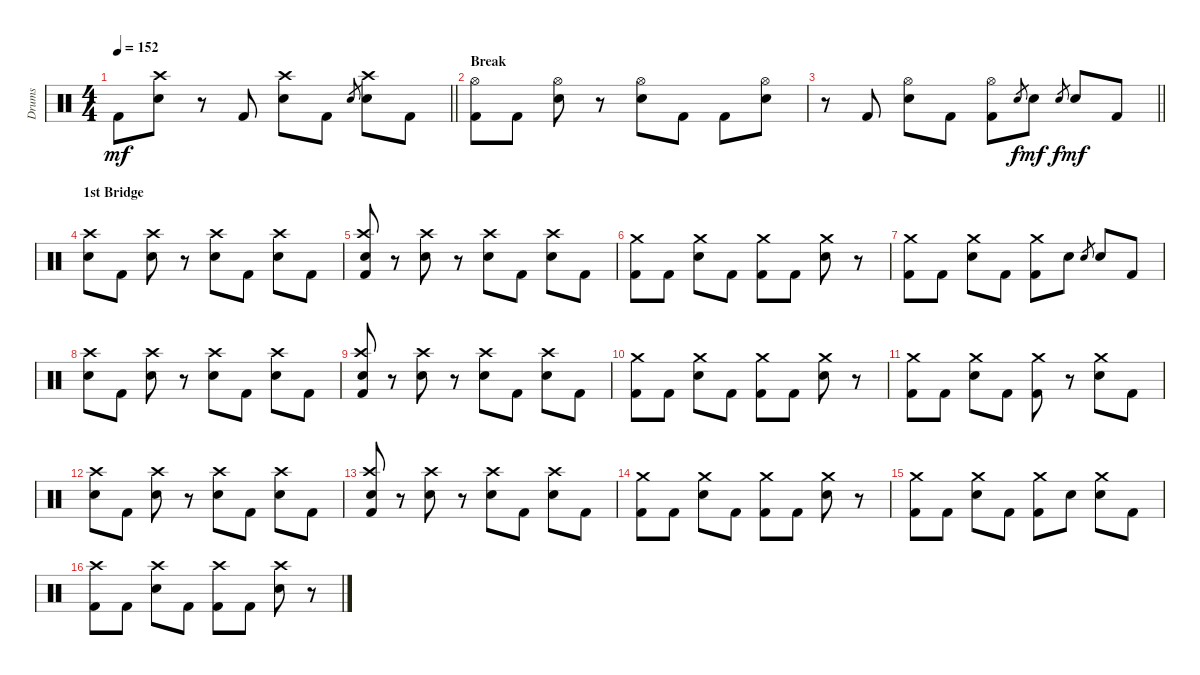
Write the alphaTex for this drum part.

\track ("Drums" "Drums") {instrument percussion}
\staff {score}
\articulation defaults
\ts (4 4)
\tempo 152
\clef neutral
\barLineRight lightlight
\ks c "Kick (hit) 2".8{dy mf}
("Crash high (hit)" "Snare (hit) 2").8 r.8 "Kick (hit) 2".8 ("Crash high (hit)" "Snare (hit) 2").8 "Kick (hit) 2".8 "Snare (hit) 2".8{gr} ("Crash high (hit)" "Snare (hit) 2").8 "Kick (hit) 2".8 |
\section ("" "Break")
("Hi-Hat (open)" "Kick (hit) 2").8 "Kick (hit) 2".8 ("Hi-Hat (open)" "Snare (hit) 2").8 r.8 ("Hi-Hat (open)" "Snare (hit) 2").8 "Kick (hit) 2".8 "Kick (hit) 2".8 ("Hi-Hat (open)" "Snare (hit) 2").8 |
\barLineRight lightlight
r.8 "Kick (hit) 2".8 ("Hi-Hat (open)" "Snare (hit) 2").8 "Kick (hit) 2".8 ("Hi-Hat (open)" "Kick (hit) 2").8 "Snare (hit) 2".8{gr dy f} "Snare (hit) 2".8{dy mf} "Snare (hit) 2".8{gr dy f} "Snare (hit) 2".8{dy mf} "Kick (hit) 2".8 |
\section ("" "1st Bridge")
("Crash high (hit)" "Snare (hit) 2").8 "Kick (hit) 2".8 ("Crash high (hit)" "Snare (hit) 2").8 r.8 ("Crash high (hit)" "Snare (hit) 2").8 "Kick (hit) 2".8 ("Crash high (hit)" "Snare (hit) 2").8 "Kick (hit) 2".8 |
("Crash high (hit)" "Snare (hit) 2" "Kick (hit) 2").8 r.8 ("Crash high (hit)" "Snare (hit) 2").8 r.8 ("Crash high (hit)" "Snare (hit) 2").8 "Kick (hit) 2".8 ("Crash high (hit)" "Snare (hit) 2").8 "Kick (hit) 2".8 |
("Crash medium (hit)" "Kick (hit) 2").8 "Kick (hit) 2".8 ("Crash medium (hit)" "Snare (hit) 2").8 "Kick (hit) 2".8 ("Crash medium (hit)" "Kick (hit) 2").8 "Kick (hit) 2".8 ("Crash medium (hit)" "Snare (hit) 2").8 r.8 |
("Crash medium (hit)" "Kick (hit) 2").8 "Kick (hit) 2".8 ("Crash medium (hit)" "Snare (hit) 2").8 "Kick (hit) 2".8 ("Crash medium (hit)" "Kick (hit) 2").8 "Snare (hit) 2".8 "Snare (hit) 2".8{gr} "Snare (hit) 2".8 "Kick (hit) 2".8 |
("Crash high (hit)" "Snare (hit) 2").8 "Kick (hit) 2".8 ("Crash high (hit)" "Snare (hit) 2").8 r.8 ("Crash high (hit)" "Snare (hit) 2").8 "Kick (hit) 2".8 ("Crash high (hit)" "Snare (hit) 2").8 "Kick (hit) 2".8 |
("Crash high (hit)" "Snare (hit) 2" "Kick (hit) 2").8 r.8 ("Crash high (hit)" "Snare (hit) 2").8 r.8 ("Crash high (hit)" "Snare (hit) 2").8 "Kick (hit) 2".8 ("Crash high (hit)" "Snare (hit) 2").8 "Kick (hit) 2".8 |
("Crash medium (hit)" "Kick (hit) 2").8 "Kick (hit) 2".8 ("Crash medium (hit)" "Snare (hit) 2").8 "Kick (hit) 2".8 ("Crash medium (hit)" "Kick (hit) 2").8 "Kick (hit) 2".8 ("Crash medium (hit)" "Snare (hit) 2").8 r.8 |
("Crash medium (hit)" "Kick (hit) 2").8 "Kick (hit) 2".8 ("Crash medium (hit)" "Snare (hit) 2").8 "Kick (hit) 2".8 ("Crash medium (hit)" "Kick (hit) 2").8 r.8 ("Crash medium (hit)" "Snare (hit) 2").8 "Kick (hit) 2".8 |
("Crash high (hit)" "Snare (hit) 2").8 "Kick (hit) 2".8 ("Crash high (hit)" "Snare (hit) 2").8 r.8 ("Crash high (hit)" "Snare (hit) 2").8 "Kick (hit) 2".8 ("Crash high (hit)" "Snare (hit) 2").8 "Kick (hit) 2".8 |
("Crash high (hit)" "Snare (hit) 2" "Kick (hit) 2").8 r.8 ("Crash high (hit)" "Snare (hit) 2").8 r.8 ("Crash high (hit)" "Snare (hit) 2").8 "Kick (hit) 2".8 ("Crash high (hit)" "Snare (hit) 2").8 "Kick (hit) 2".8 |
("Crash medium (hit)" "Kick (hit) 2").8 "Kick (hit) 2".8 ("Crash medium (hit)" "Snare (hit) 2").8 "Kick (hit) 2".8 ("Crash medium (hit)" "Kick (hit) 2").8 "Kick (hit) 2".8 ("Crash medium (hit)" "Snare (hit) 2").8 r.8 |
("Crash medium (hit)" "Kick (hit) 2").8 "Kick (hit) 2".8 ("Crash medium (hit)" "Snare (hit) 2").8 "Kick (hit) 2".8 ("Crash medium (hit)" "Kick (hit) 2").8 "Snare (hit) 2".8 ("Crash medium (hit)" "Snare (hit) 2").8 "Kick (hit) 2".8 |
("Crash high (hit)" "Kick (hit) 2").8 "Kick (hit) 2".8 ("Crash high (hit)" "Snare (hit) 2").8 "Kick (hit) 2".8 ("Crash high (hit)" "Kick (hit) 2").8 "Kick (hit) 2".8 ("Crash high (hit)" "Snare (hit) 2").8 r.8
